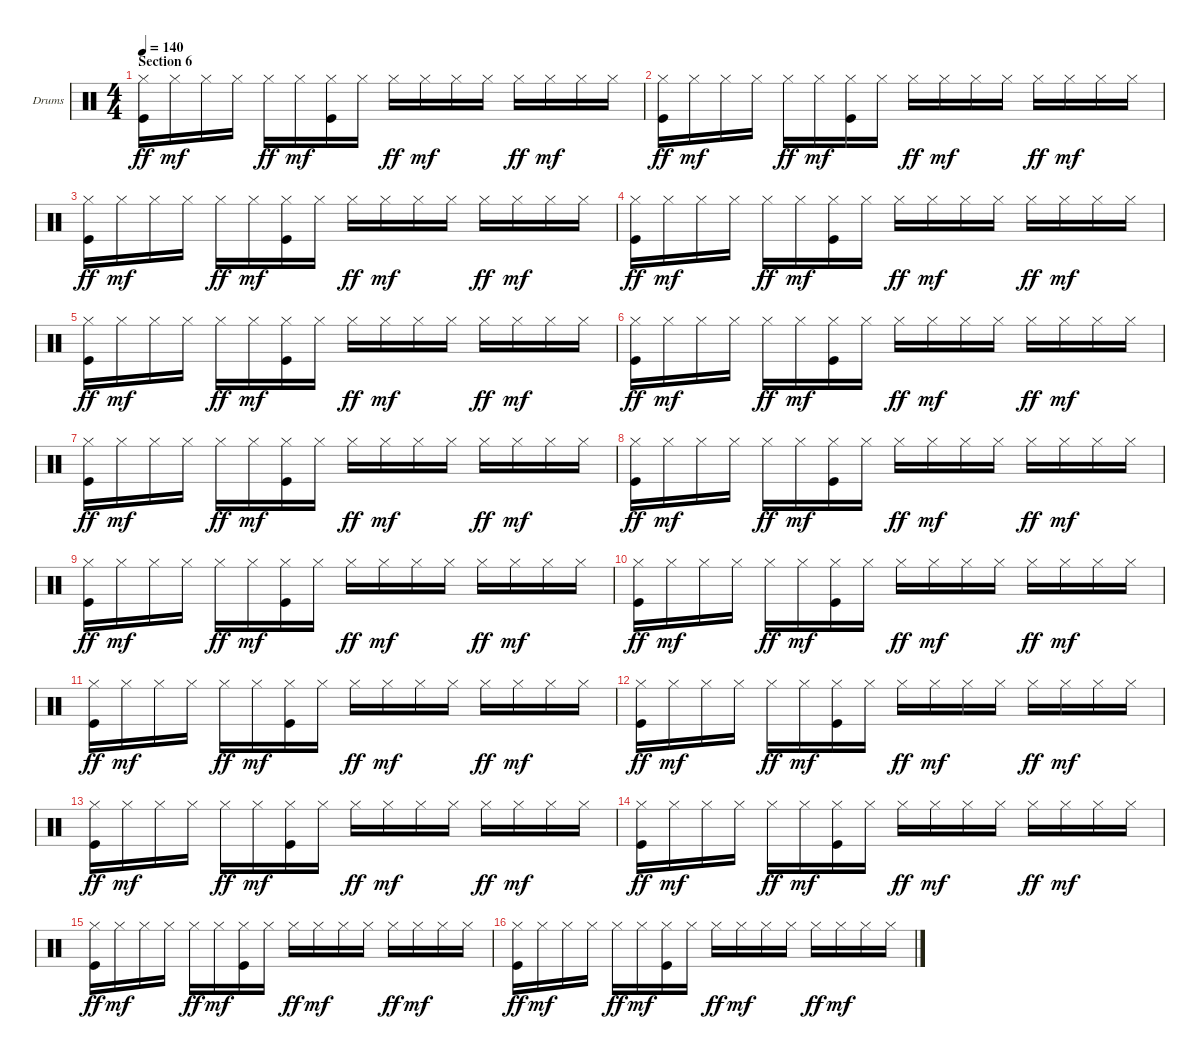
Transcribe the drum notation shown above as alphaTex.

\bracketExtendMode groupsimilarinstruments
\firstSystemTrackNameOrientation horizontal
\otherSystemsTrackNameOrientation horizontal
\track ("Drumkit" "Drums") {instrument percussion}
\staff {score}
\articulation defaults
\ts (4 4)
\section ("" "Section 6")
\tempo 140
\clef neutral
\ks c
("Hi-Hat (closed)" "Kick (hit)").16{dy ff} "Hi-Hat (closed)".16{dy mf} "Hi-Hat (closed)".16 "Hi-Hat (closed)".16 "Hi-Hat (closed)".16{dy ff} "Hi-Hat (closed)".16{dy mf} ("Hi-Hat (closed)" "Kick (hit)").16 "Hi-Hat (closed)".16 "Hi-Hat (closed)".16{dy ff} "Hi-Hat (closed)".16{dy mf} "Hi-Hat (closed)".16 "Hi-Hat (closed)".16 "Hi-Hat (closed)".16{dy ff} "Hi-Hat (closed)".16{dy mf} "Hi-Hat (closed)".16 "Hi-Hat (closed)".16 |
("Hi-Hat (closed)" "Kick (hit)").16{dy ff} "Hi-Hat (closed)".16{dy mf} "Hi-Hat (closed)".16 "Hi-Hat (closed)".16 "Hi-Hat (closed)".16{dy ff} "Hi-Hat (closed)".16{dy mf} ("Hi-Hat (closed)" "Kick (hit)").16 "Hi-Hat (closed)".16 "Hi-Hat (closed)".16{dy ff} "Hi-Hat (closed)".16{dy mf} "Hi-Hat (closed)".16 "Hi-Hat (closed)".16 "Hi-Hat (closed)".16{dy ff} "Hi-Hat (closed)".16{dy mf} "Hi-Hat (closed)".16 "Hi-Hat (closed)".16 |
("Hi-Hat (closed)" "Kick (hit)").16{dy ff} "Hi-Hat (closed)".16{dy mf} "Hi-Hat (closed)".16 "Hi-Hat (closed)".16 "Hi-Hat (closed)".16{dy ff} "Hi-Hat (closed)".16{dy mf} ("Hi-Hat (closed)" "Kick (hit)").16 "Hi-Hat (closed)".16 "Hi-Hat (closed)".16{dy ff} "Hi-Hat (closed)".16{dy mf} "Hi-Hat (closed)".16 "Hi-Hat (closed)".16 "Hi-Hat (closed)".16{dy ff} "Hi-Hat (closed)".16{dy mf} "Hi-Hat (closed)".16 "Hi-Hat (closed)".16 |
("Hi-Hat (closed)" "Kick (hit)").16{dy ff} "Hi-Hat (closed)".16{dy mf} "Hi-Hat (closed)".16 "Hi-Hat (closed)".16 "Hi-Hat (closed)".16{dy ff} "Hi-Hat (closed)".16{dy mf} ("Hi-Hat (closed)" "Kick (hit)").16 "Hi-Hat (closed)".16 "Hi-Hat (closed)".16{dy ff} "Hi-Hat (closed)".16{dy mf} "Hi-Hat (closed)".16 "Hi-Hat (closed)".16 "Hi-Hat (closed)".16{dy ff} "Hi-Hat (closed)".16{dy mf} "Hi-Hat (closed)".16 "Hi-Hat (closed)".16 |
("Hi-Hat (closed)" "Kick (hit)").16{dy ff} "Hi-Hat (closed)".16{dy mf} "Hi-Hat (closed)".16 "Hi-Hat (closed)".16 "Hi-Hat (closed)".16{dy ff} "Hi-Hat (closed)".16{dy mf} ("Hi-Hat (closed)" "Kick (hit)").16 "Hi-Hat (closed)".16 "Hi-Hat (closed)".16{dy ff} "Hi-Hat (closed)".16{dy mf} "Hi-Hat (closed)".16 "Hi-Hat (closed)".16 "Hi-Hat (closed)".16{dy ff} "Hi-Hat (closed)".16{dy mf} "Hi-Hat (closed)".16 "Hi-Hat (closed)".16 |
("Hi-Hat (closed)" "Kick (hit)").16{dy ff} "Hi-Hat (closed)".16{dy mf} "Hi-Hat (closed)".16 "Hi-Hat (closed)".16 "Hi-Hat (closed)".16{dy ff} "Hi-Hat (closed)".16{dy mf} ("Hi-Hat (closed)" "Kick (hit)").16 "Hi-Hat (closed)".16 "Hi-Hat (closed)".16{dy ff} "Hi-Hat (closed)".16{dy mf} "Hi-Hat (closed)".16 "Hi-Hat (closed)".16 "Hi-Hat (closed)".16{dy ff} "Hi-Hat (closed)".16{dy mf} "Hi-Hat (closed)".16 "Hi-Hat (closed)".16 |
("Hi-Hat (closed)" "Kick (hit)").16{dy ff} "Hi-Hat (closed)".16{dy mf} "Hi-Hat (closed)".16 "Hi-Hat (closed)".16 "Hi-Hat (closed)".16{dy ff} "Hi-Hat (closed)".16{dy mf} ("Hi-Hat (closed)" "Kick (hit)").16 "Hi-Hat (closed)".16 "Hi-Hat (closed)".16{dy ff} "Hi-Hat (closed)".16{dy mf} "Hi-Hat (closed)".16 "Hi-Hat (closed)".16 "Hi-Hat (closed)".16{dy ff} "Hi-Hat (closed)".16{dy mf} "Hi-Hat (closed)".16 "Hi-Hat (closed)".16 |
("Hi-Hat (closed)" "Kick (hit)").16{dy ff} "Hi-Hat (closed)".16{dy mf} "Hi-Hat (closed)".16 "Hi-Hat (closed)".16 "Hi-Hat (closed)".16{dy ff} "Hi-Hat (closed)".16{dy mf} ("Hi-Hat (closed)" "Kick (hit)").16 "Hi-Hat (closed)".16 "Hi-Hat (closed)".16{dy ff} "Hi-Hat (closed)".16{dy mf} "Hi-Hat (closed)".16 "Hi-Hat (closed)".16 "Hi-Hat (closed)".16{dy ff} "Hi-Hat (closed)".16{dy mf} "Hi-Hat (closed)".16 "Hi-Hat (closed)".16 |
("Hi-Hat (closed)" "Kick (hit)").16{dy ff} "Hi-Hat (closed)".16{dy mf} "Hi-Hat (closed)".16 "Hi-Hat (closed)".16 "Hi-Hat (closed)".16{dy ff} "Hi-Hat (closed)".16{dy mf} ("Hi-Hat (closed)" "Kick (hit)").16 "Hi-Hat (closed)".16 "Hi-Hat (closed)".16{dy ff} "Hi-Hat (closed)".16{dy mf} "Hi-Hat (closed)".16 "Hi-Hat (closed)".16 "Hi-Hat (closed)".16{dy ff} "Hi-Hat (closed)".16{dy mf} "Hi-Hat (closed)".16 "Hi-Hat (closed)".16 |
("Hi-Hat (closed)" "Kick (hit)").16{dy ff} "Hi-Hat (closed)".16{dy mf} "Hi-Hat (closed)".16 "Hi-Hat (closed)".16 "Hi-Hat (closed)".16{dy ff} "Hi-Hat (closed)".16{dy mf} ("Hi-Hat (closed)" "Kick (hit)").16 "Hi-Hat (closed)".16 "Hi-Hat (closed)".16{dy ff} "Hi-Hat (closed)".16{dy mf} "Hi-Hat (closed)".16 "Hi-Hat (closed)".16 "Hi-Hat (closed)".16{dy ff} "Hi-Hat (closed)".16{dy mf} "Hi-Hat (closed)".16 "Hi-Hat (closed)".16 |
("Hi-Hat (closed)" "Kick (hit)").16{dy ff} "Hi-Hat (closed)".16{dy mf} "Hi-Hat (closed)".16 "Hi-Hat (closed)".16 "Hi-Hat (closed)".16{dy ff} "Hi-Hat (closed)".16{dy mf} ("Hi-Hat (closed)" "Kick (hit)").16 "Hi-Hat (closed)".16 "Hi-Hat (closed)".16{dy ff} "Hi-Hat (closed)".16{dy mf} "Hi-Hat (closed)".16 "Hi-Hat (closed)".16 "Hi-Hat (closed)".16{dy ff} "Hi-Hat (closed)".16{dy mf} "Hi-Hat (closed)".16 "Hi-Hat (closed)".16 |
("Hi-Hat (closed)" "Kick (hit)").16{dy ff} "Hi-Hat (closed)".16{dy mf} "Hi-Hat (closed)".16 "Hi-Hat (closed)".16 "Hi-Hat (closed)".16{dy ff} "Hi-Hat (closed)".16{dy mf} ("Hi-Hat (closed)" "Kick (hit)").16 "Hi-Hat (closed)".16 "Hi-Hat (closed)".16{dy ff} "Hi-Hat (closed)".16{dy mf} "Hi-Hat (closed)".16 "Hi-Hat (closed)".16 "Hi-Hat (closed)".16{dy ff} "Hi-Hat (closed)".16{dy mf} "Hi-Hat (closed)".16 "Hi-Hat (closed)".16 |
("Hi-Hat (closed)" "Kick (hit)").16{dy ff} "Hi-Hat (closed)".16{dy mf} "Hi-Hat (closed)".16 "Hi-Hat (closed)".16 "Hi-Hat (closed)".16{dy ff} "Hi-Hat (closed)".16{dy mf} ("Hi-Hat (closed)" "Kick (hit)").16 "Hi-Hat (closed)".16 "Hi-Hat (closed)".16{dy ff} "Hi-Hat (closed)".16{dy mf} "Hi-Hat (closed)".16 "Hi-Hat (closed)".16 "Hi-Hat (closed)".16{dy ff} "Hi-Hat (closed)".16{dy mf} "Hi-Hat (closed)".16 "Hi-Hat (closed)".16 |
("Hi-Hat (closed)" "Kick (hit)").16{dy ff} "Hi-Hat (closed)".16{dy mf} "Hi-Hat (closed)".16 "Hi-Hat (closed)".16 "Hi-Hat (closed)".16{dy ff} "Hi-Hat (closed)".16{dy mf} ("Hi-Hat (closed)" "Kick (hit)").16 "Hi-Hat (closed)".16 "Hi-Hat (closed)".16{dy ff} "Hi-Hat (closed)".16{dy mf} "Hi-Hat (closed)".16 "Hi-Hat (closed)".16 "Hi-Hat (closed)".16{dy ff} "Hi-Hat (closed)".16{dy mf} "Hi-Hat (closed)".16 "Hi-Hat (closed)".16 |
("Hi-Hat (closed)" "Kick (hit)").16{dy ff} "Hi-Hat (closed)".16{dy mf} "Hi-Hat (closed)".16 "Hi-Hat (closed)".16 "Hi-Hat (closed)".16{dy ff} "Hi-Hat (closed)".16{dy mf} ("Hi-Hat (closed)" "Kick (hit)").16 "Hi-Hat (closed)".16 "Hi-Hat (closed)".16{dy ff} "Hi-Hat (closed)".16{dy mf} "Hi-Hat (closed)".16 "Hi-Hat (closed)".16 "Hi-Hat (closed)".16{dy ff} "Hi-Hat (closed)".16{dy mf} "Hi-Hat (closed)".16 "Hi-Hat (closed)".16 |
("Hi-Hat (closed)" "Kick (hit)").16{dy ff} "Hi-Hat (closed)".16{dy mf} "Hi-Hat (closed)".16 "Hi-Hat (closed)".16 "Hi-Hat (closed)".16{dy ff} "Hi-Hat (closed)".16{dy mf} ("Hi-Hat (closed)" "Kick (hit)").16 "Hi-Hat (closed)".16 "Hi-Hat (closed)".16{dy ff} "Hi-Hat (closed)".16{dy mf} "Hi-Hat (closed)".16 "Hi-Hat (closed)".16 "Hi-Hat (closed)".16{dy ff} "Hi-Hat (closed)".16{dy mf} "Hi-Hat (closed)".16 "Hi-Hat (closed)".16
